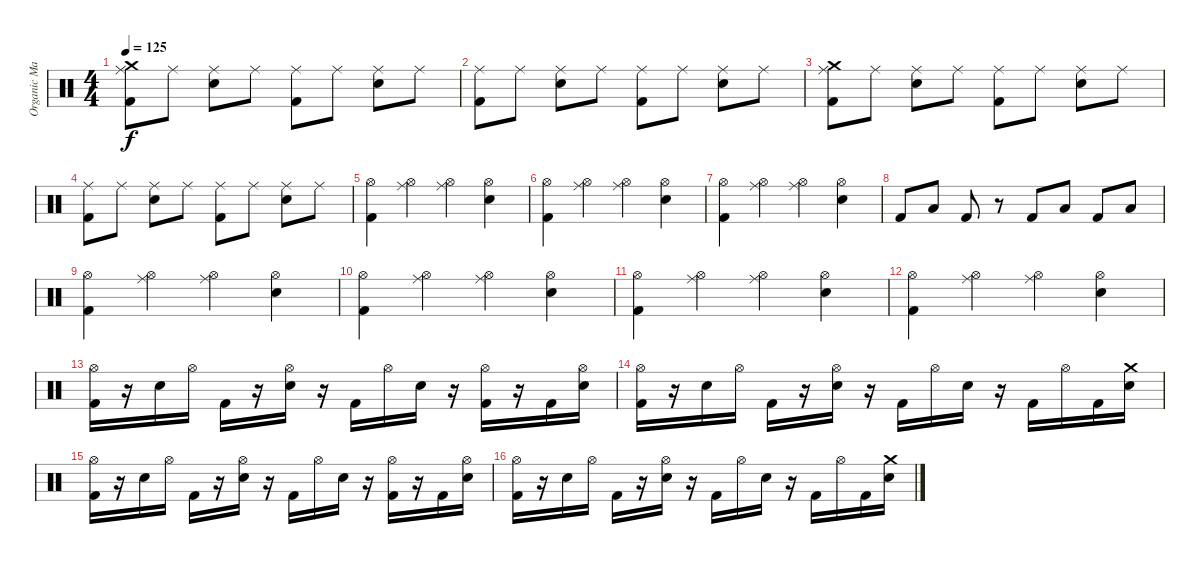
\track ("Organic Masturbator Of 1000 Splatter Who" "Organic Ma") {instrument percussion}
\staff {score}
\articulation defaults
\ts (4 4)
\tempo 125
\clef neutral
\ks c
("Ride (middle)" "Crash medium (hit)" "Kick (hit) 2").8{dy f} "Ride (middle)".8 ("Ride (middle)" "Electric Snare (hit)").8 "Ride (middle)".8 ("Ride (middle)" "Kick (hit) 2").8 "Ride (middle)".8 ("Ride (middle)" "Electric Snare (hit)").8 "Ride (middle)".8 |
("Ride (middle)" "Kick (hit) 2").8 "Ride (middle)".8 ("Ride (middle)" "Electric Snare (hit)").8 "Ride (middle)".8 ("Ride (middle)" "Kick (hit) 2").8 "Ride (middle)".8 ("Ride (middle)" "Electric Snare (hit)").8 "Ride (middle)".8 |
("Ride (middle)" "Crash medium (hit)" "Kick (hit) 2").8 "Ride (middle)".8 ("Ride (middle)" "Electric Snare (hit)").8 "Ride (middle)".8 ("Ride (middle)" "Kick (hit) 2").8 "Ride (middle)".8 ("Ride (middle)" "Electric Snare (hit)").8 "Ride (middle)".8 |
("Ride (middle)" "Kick (hit) 2").8 "Ride (middle)".8 ("Ride (middle)" "Electric Snare (hit)").8 "Ride (middle)".8 ("Ride (middle)" "Kick (hit) 2").8 "Ride (middle)".8 ("Ride (middle)" "Electric Snare (hit)").8 "Ride (middle)".8 |
("Hi-Hat (open)" "Kick (hit) 2").4 ("Ride (middle)" "Hi-Hat (open)").4 ("Ride (middle)" "Hi-Hat (open)").4 ("Hi-Hat (open)" "Electric Snare (hit)").4 |
("Hi-Hat (open)" "Kick (hit) 2").4 ("Ride (middle)" "Hi-Hat (open)").4 ("Ride (middle)" "Hi-Hat (open)").4 ("Hi-Hat (open)" "Electric Snare (hit)").4 |
("Hi-Hat (open)" "Kick (hit) 2").4 ("Ride (middle)" "Hi-Hat (open)").4 ("Ride (middle)" "Hi-Hat (open)").4 ("Hi-Hat (open)" "Electric Snare (hit)").4 |
"Kick (hit) 2".8 "Low Floor Tom (hit)".8 "Kick (hit) 2".8 r.8 "Kick (hit) 2".8 "Low Floor Tom (hit)".8 "Kick (hit) 2".8 "Low Floor Tom (hit)".8 |
("Hi-Hat (open)" "Kick (hit) 2").4 ("Ride (middle)" "Hi-Hat (open)").4 ("Ride (middle)" "Hi-Hat (open)").4 ("Hi-Hat (open)" "Electric Snare (hit)").4 |
("Hi-Hat (open)" "Kick (hit) 2").4 ("Ride (middle)" "Hi-Hat (open)").4 ("Ride (middle)" "Hi-Hat (open)").4 ("Hi-Hat (open)" "Electric Snare (hit)").4 |
("Hi-Hat (open)" "Kick (hit) 2").4 ("Ride (middle)" "Hi-Hat (open)").4 ("Ride (middle)" "Hi-Hat (open)").4 ("Hi-Hat (open)" "Electric Snare (hit)").4 |
("Hi-Hat (open)" "Kick (hit) 2").4 ("Ride (middle)" "Hi-Hat (open)").4 ("Ride (middle)" "Hi-Hat (open)").4 ("Hi-Hat (open)" "Electric Snare (hit)").4 |
("Hi-Hat (open)" "Kick (hit) 2").16 r.16 "Electric Snare (hit)".16 "Hi-Hat (open)".16 "Kick (hit) 2".16 r.16 ("Hi-Hat (open)" "Electric Snare (hit)").16 r.16 "Kick (hit) 2".16 "Hi-Hat (open)".16 "Electric Snare (hit)".16 r.16 ("Hi-Hat (open)" "Kick (hit) 2").16 r.16 "Kick (hit) 2".16 ("Hi-Hat (open)" "Electric Snare (hit)").16 |
("Hi-Hat (open)" "Kick (hit) 2").16 r.16 "Electric Snare (hit)".16 "Hi-Hat (open)".16 "Kick (hit) 2".16 r.16 ("Hi-Hat (open)" "Electric Snare (hit)").16 r.16 "Kick (hit) 2".16 "Hi-Hat (open)".16 "Electric Snare (hit)".16 r.16 "Kick (hit) 2".16 "Hi-Hat (open)".16 "Kick (hit) 2".16 ("Crash medium (hit)" "Electric Snare (hit)").16 |
("Hi-Hat (open)" "Kick (hit) 2").16 r.16 "Electric Snare (hit)".16 "Hi-Hat (open)".16 "Kick (hit) 2".16 r.16 ("Hi-Hat (open)" "Electric Snare (hit)").16 r.16 "Kick (hit) 2".16 "Hi-Hat (open)".16 "Electric Snare (hit)".16 r.16 ("Hi-Hat (open)" "Kick (hit) 2").16 r.16 "Kick (hit) 2".16 ("Hi-Hat (open)" "Electric Snare (hit)").16 |
("Hi-Hat (open)" "Kick (hit) 2").16 r.16 "Electric Snare (hit)".16 "Hi-Hat (open)".16 "Kick (hit) 2".16 r.16 ("Hi-Hat (open)" "Electric Snare (hit)").16 r.16 "Kick (hit) 2".16 "Hi-Hat (open)".16 "Electric Snare (hit)".16 r.16 "Kick (hit) 2".16 "Hi-Hat (open)".16 "Kick (hit) 2".16 ("Crash medium (hit)" "Electric Snare (hit)").16
